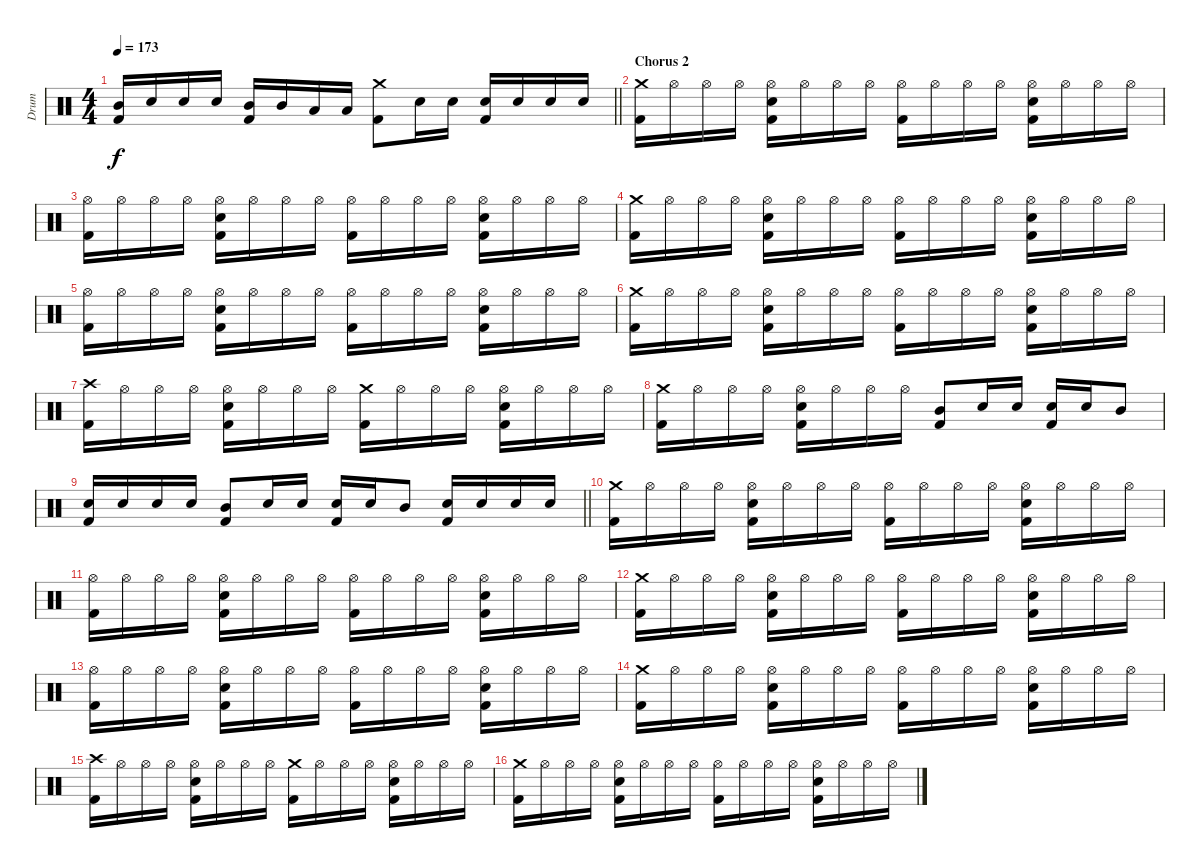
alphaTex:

\track ("Drum" "Drum") {instrument percussion}
\staff {score}
\articulation defaults
\ts (4 4)
\tempo 173
\clef neutral
\barLineRight lightlight
\ks c
("Kick (hit) 2" "Mid Tom (hit)").16{dy f} "Snare (hit) 2".16 "Snare (hit) 2".16 "Snare (hit) 2".16 ("Kick (hit) 2" "Mid Tom (hit)").16 "Mid Tom (hit)".16 "Low Tom (hit)".16 "Low Tom (hit)".16 ("Kick (hit) 2" "Crash medium (hit)").8 "Snare (hit) 2".16 "Snare (hit) 2".16 ("Kick (hit) 2" "Snare (hit) 2").16 "Snare (hit) 2".16 "Snare (hit) 2".16 "Snare (hit) 2".16 |
\section ("" "Chorus 2")
("Crash medium (hit)" "Kick (hit) 2").16 "Hi-Hat (open)".16 "Hi-Hat (open)".16 "Hi-Hat (open)".16 ("Hi-Hat (open)" "Kick (hit) 2" "Snare (hit) 2").16 "Hi-Hat (open)".16 "Hi-Hat (open)".16 "Hi-Hat (open)".16 ("Hi-Hat (open)" "Kick (hit) 2").16 "Hi-Hat (open)".16 "Hi-Hat (open)".16 "Hi-Hat (open)".16 ("Hi-Hat (open)" "Kick (hit) 2" "Snare (hit) 2").16 "Hi-Hat (open)".16 "Hi-Hat (open)".16 "Hi-Hat (open)".16 |
("Hi-Hat (open)" "Kick (hit) 2").16 "Hi-Hat (open)".16 "Hi-Hat (open)".16 "Hi-Hat (open)".16 ("Hi-Hat (open)" "Kick (hit) 2" "Snare (hit) 2").16 "Hi-Hat (open)".16 "Hi-Hat (open)".16 "Hi-Hat (open)".16 ("Hi-Hat (open)" "Kick (hit) 2").16 "Hi-Hat (open)".16 "Hi-Hat (open)".16 "Hi-Hat (open)".16 ("Hi-Hat (open)" "Kick (hit) 2" "Snare (hit) 2").16 "Hi-Hat (open)".16 "Hi-Hat (open)".16 "Hi-Hat (open)".16 |
("Crash medium (hit)" "Kick (hit) 2").16 "Hi-Hat (open)".16 "Hi-Hat (open)".16 "Hi-Hat (open)".16 ("Hi-Hat (open)" "Kick (hit) 2" "Snare (hit) 2").16 "Hi-Hat (open)".16 "Hi-Hat (open)".16 "Hi-Hat (open)".16 ("Hi-Hat (open)" "Kick (hit) 2").16 "Hi-Hat (open)".16 "Hi-Hat (open)".16 "Hi-Hat (open)".16 ("Hi-Hat (open)" "Kick (hit) 2" "Snare (hit) 2").16 "Hi-Hat (open)".16 "Hi-Hat (open)".16 "Hi-Hat (open)".16 |
("Hi-Hat (open)" "Kick (hit) 2").16 "Hi-Hat (open)".16 "Hi-Hat (open)".16 "Hi-Hat (open)".16 ("Hi-Hat (open)" "Kick (hit) 2" "Snare (hit) 2").16 "Hi-Hat (open)".16 "Hi-Hat (open)".16 "Hi-Hat (open)".16 ("Hi-Hat (open)" "Kick (hit) 2").16 "Hi-Hat (open)".16 "Hi-Hat (open)".16 "Hi-Hat (open)".16 ("Hi-Hat (open)" "Kick (hit) 2" "Snare (hit) 2").16 "Hi-Hat (open)".16 "Hi-Hat (open)".16 "Hi-Hat (open)".16 |
("Crash medium (hit)" "Kick (hit) 2").16 "Hi-Hat (open)".16 "Hi-Hat (open)".16 "Hi-Hat (open)".16 ("Hi-Hat (open)" "Kick (hit) 2" "Snare (hit) 2").16 "Hi-Hat (open)".16 "Hi-Hat (open)".16 "Hi-Hat (open)".16 ("Hi-Hat (open)" "Kick (hit) 2").16 "Hi-Hat (open)".16 "Hi-Hat (open)".16 "Hi-Hat (open)".16 ("Hi-Hat (open)" "Kick (hit) 2" "Snare (hit) 2").16 "Hi-Hat (open)".16 "Hi-Hat (open)".16 "Hi-Hat (open)".16 |
("Crash high (hit)" "Kick (hit) 2").16 "Hi-Hat (open)".16 "Hi-Hat (open)".16 "Hi-Hat (open)".16 ("Hi-Hat (open)" "Kick (hit) 2" "Snare (hit) 2").16 "Hi-Hat (open)".16 "Hi-Hat (open)".16 "Hi-Hat (open)".16 ("Crash medium (hit)" "Kick (hit) 2").16 "Hi-Hat (open)".16 "Hi-Hat (open)".16 "Hi-Hat (open)".16 ("Hi-Hat (open)" "Kick (hit) 2" "Snare (hit) 2").16 "Hi-Hat (open)".16 "Hi-Hat (open)".16 "Hi-Hat (open)".16 |
("Crash medium (hit)" "Kick (hit) 2").16 "Hi-Hat (open)".16 "Hi-Hat (open)".16 "Hi-Hat (open)".16 ("Hi-Hat (open)" "Kick (hit) 2" "Snare (hit) 2").16 "Hi-Hat (open)".16 "Hi-Hat (open)".16 "Hi-Hat (open)".16 ("Mid Tom (hit)" "Kick (hit) 2").8 "Snare (hit) 2".16 "Snare (hit) 2".16 ("Snare (hit) 2" "Kick (hit) 2").16 "Snare (hit) 2".16 "Mid Tom (hit)".8 |
\barLineRight lightlight
("Snare (hit) 2" "Kick (hit) 2").16 "Snare (hit) 2".16 "Snare (hit) 2".16 "Snare (hit) 2".16 ("Mid Tom (hit)" "Kick (hit) 2").8 "Snare (hit) 2".16 "Snare (hit) 2".16 ("Snare (hit) 2" "Kick (hit) 2").16 "Snare (hit) 2".16 "Mid Tom (hit)".8 ("Snare (hit) 2" "Kick (hit) 2").16 "Snare (hit) 2".16 "Snare (hit) 2".16 "Snare (hit) 2".16 |
("Crash medium (hit)" "Kick (hit) 2").16 "Hi-Hat (open)".16 "Hi-Hat (open)".16 "Hi-Hat (open)".16 ("Hi-Hat (open)" "Kick (hit) 2" "Snare (hit) 2").16 "Hi-Hat (open)".16 "Hi-Hat (open)".16 "Hi-Hat (open)".16 ("Hi-Hat (open)" "Kick (hit) 2").16 "Hi-Hat (open)".16 "Hi-Hat (open)".16 "Hi-Hat (open)".16 ("Hi-Hat (open)" "Kick (hit) 2" "Snare (hit) 2").16 "Hi-Hat (open)".16 "Hi-Hat (open)".16 "Hi-Hat (open)".16 |
("Hi-Hat (open)" "Kick (hit) 2").16 "Hi-Hat (open)".16 "Hi-Hat (open)".16 "Hi-Hat (open)".16 ("Hi-Hat (open)" "Kick (hit) 2" "Snare (hit) 2").16 "Hi-Hat (open)".16 "Hi-Hat (open)".16 "Hi-Hat (open)".16 ("Hi-Hat (open)" "Kick (hit) 2").16 "Hi-Hat (open)".16 "Hi-Hat (open)".16 "Hi-Hat (open)".16 ("Hi-Hat (open)" "Kick (hit) 2" "Snare (hit) 2").16 "Hi-Hat (open)".16 "Hi-Hat (open)".16 "Hi-Hat (open)".16 |
("Crash medium (hit)" "Kick (hit) 2").16 "Hi-Hat (open)".16 "Hi-Hat (open)".16 "Hi-Hat (open)".16 ("Hi-Hat (open)" "Kick (hit) 2" "Snare (hit) 2").16 "Hi-Hat (open)".16 "Hi-Hat (open)".16 "Hi-Hat (open)".16 ("Hi-Hat (open)" "Kick (hit) 2").16 "Hi-Hat (open)".16 "Hi-Hat (open)".16 "Hi-Hat (open)".16 ("Hi-Hat (open)" "Kick (hit) 2" "Snare (hit) 2").16 "Hi-Hat (open)".16 "Hi-Hat (open)".16 "Hi-Hat (open)".16 |
("Hi-Hat (open)" "Kick (hit) 2").16 "Hi-Hat (open)".16 "Hi-Hat (open)".16 "Hi-Hat (open)".16 ("Hi-Hat (open)" "Kick (hit) 2" "Snare (hit) 2").16 "Hi-Hat (open)".16 "Hi-Hat (open)".16 "Hi-Hat (open)".16 ("Hi-Hat (open)" "Kick (hit) 2").16 "Hi-Hat (open)".16 "Hi-Hat (open)".16 "Hi-Hat (open)".16 ("Hi-Hat (open)" "Kick (hit) 2" "Snare (hit) 2").16 "Hi-Hat (open)".16 "Hi-Hat (open)".16 "Hi-Hat (open)".16 |
("Crash medium (hit)" "Kick (hit) 2").16 "Hi-Hat (open)".16 "Hi-Hat (open)".16 "Hi-Hat (open)".16 ("Hi-Hat (open)" "Kick (hit) 2" "Snare (hit) 2").16 "Hi-Hat (open)".16 "Hi-Hat (open)".16 "Hi-Hat (open)".16 ("Hi-Hat (open)" "Kick (hit) 2").16 "Hi-Hat (open)".16 "Hi-Hat (open)".16 "Hi-Hat (open)".16 ("Hi-Hat (open)" "Kick (hit) 2" "Snare (hit) 2").16 "Hi-Hat (open)".16 "Hi-Hat (open)".16 "Hi-Hat (open)".16 |
("Crash high (hit)" "Kick (hit) 2").16 "Hi-Hat (open)".16 "Hi-Hat (open)".16 "Hi-Hat (open)".16 ("Hi-Hat (open)" "Kick (hit) 2" "Snare (hit) 2").16 "Hi-Hat (open)".16 "Hi-Hat (open)".16 "Hi-Hat (open)".16 ("Crash medium (hit)" "Kick (hit) 2").16 "Hi-Hat (open)".16 "Hi-Hat (open)".16 "Hi-Hat (open)".16 ("Hi-Hat (open)" "Kick (hit) 2" "Snare (hit) 2").16 "Hi-Hat (open)".16 "Hi-Hat (open)".16 "Hi-Hat (open)".16 |
("Crash medium (hit)" "Kick (hit) 2").16 "Hi-Hat (open)".16 "Hi-Hat (open)".16 "Hi-Hat (open)".16 ("Hi-Hat (open)" "Kick (hit) 2" "Snare (hit) 2").16 "Hi-Hat (open)".16 "Hi-Hat (open)".16 "Hi-Hat (open)".16 ("Hi-Hat (open)" "Kick (hit) 2").16 "Hi-Hat (open)".16 "Hi-Hat (open)".16 "Hi-Hat (open)".16 ("Hi-Hat (open)" "Kick (hit) 2" "Snare (hit) 2").16 "Hi-Hat (open)".16 "Hi-Hat (open)".16 "Hi-Hat (open)".16
